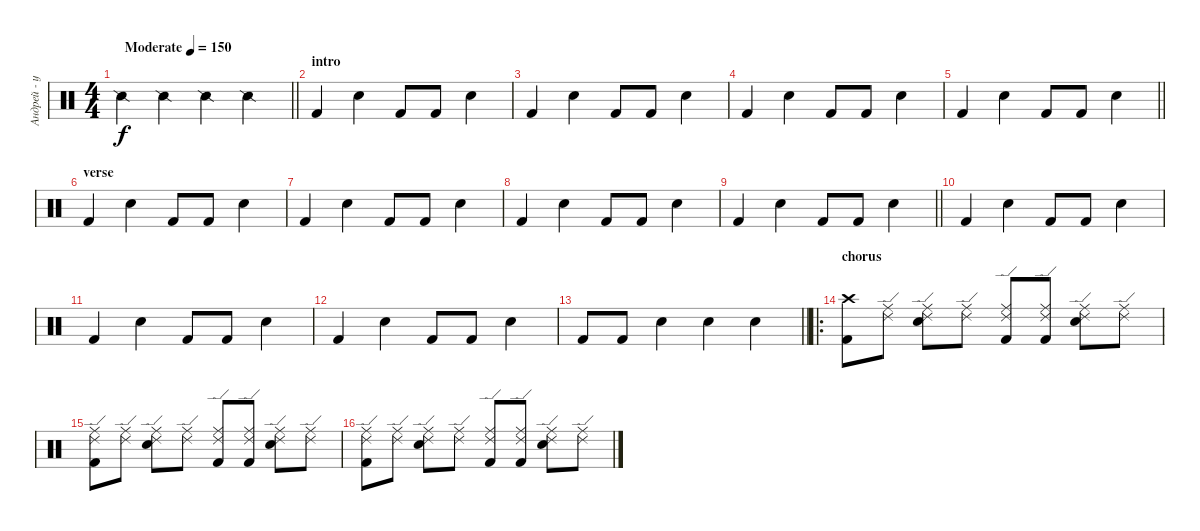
\track ("Андрей - ударные" "Андрей - у") {instrument percussion}
\staff
\articulation defaults
\ts (4 4)
\tempo (150 "Moderate")
\clef neutral
\barLineRight lightlight
\ks c "Snare (side stick) 2".4{dy f} "Snare (side stick) 2".4 "Snare (side stick) 2".4 "Snare (side stick) 2".4
|
\section ("" "intro")
"Kick (hit) 2".4 "Electric Snare (hit)".4 "Kick (hit) 2".8 "Kick (hit) 2".8 "Electric Snare (hit)".4 |
"Kick (hit) 2".4 "Electric Snare (hit)".4 "Kick (hit) 2".8 "Kick (hit) 2".8 "Electric Snare (hit)".4 |
"Kick (hit) 2".4 "Electric Snare (hit)".4 "Kick (hit) 2".8 "Kick (hit) 2".8 "Electric Snare (hit)".4 |
\barLineRight lightlight "Kick (hit) 2".4 "Electric Snare (hit)".4 "Kick (hit) 2".8 "Kick (hit) 2".8 "Electric Snare (hit)".4
|
\section ("" "verse")
"Kick (hit) 2".4 "Electric Snare (hit)".4 "Kick (hit) 2".8 "Kick (hit) 2".8 "Electric Snare (hit)".4 |
"Kick (hit) 2".4 "Electric Snare (hit)".4 "Kick (hit) 2".8 "Kick (hit) 2".8 "Electric Snare (hit)".4 |
"Kick (hit) 2".4 "Electric Snare (hit)".4 "Kick (hit) 2".8 "Kick (hit) 2".8 "Electric Snare (hit)".4 |
\barLineRight lightlight "Kick (hit) 2".4 "Electric Snare (hit)".4 "Kick (hit) 2".8 "Kick (hit) 2".8 "Electric Snare (hit)".4
|
"Kick (hit) 2".4 "Electric Snare (hit)".4 "Kick (hit) 2".8 "Kick (hit) 2".8 "Electric Snare (hit)".4 |
"Kick (hit) 2".4 "Electric Snare (hit)".4 "Kick (hit) 2".8 "Kick (hit) 2".8 "Electric Snare (hit)".4 |
"Kick (hit) 2".4 "Electric Snare (hit)".4 "Kick (hit) 2".8 "Kick (hit) 2".8 "Electric Snare (hit)".4 |
\barLineRight lightlight "Kick (hit) 2".8 "Kick (hit) 2".8 "Electric Snare (hit)".4 "Electric Snare (hit)".4 "Electric Snare (hit)".4
|
\ro
\section ("" "chorus")
("Crash high (hit)" "Kick (hit) 2").8 ("Ride (middle)" "Ride (edge) 2").8 ("Ride (middle)" "Ride (edge) 2" "Electric Snare (hit)").8 ("Ride (middle)" "Ride (edge) 2").8 ("Ride (middle)" "Ride (edge) 2" "Kick (hit) 2").8 ("Ride (middle)" "Ride (edge) 2" "Kick (hit) 2").8 ("Ride (middle)" "Ride (edge) 2" "Electric Snare (hit)").8 ("Ride (middle)" "Ride (edge) 2").8 |
("Ride (middle)" "Ride (edge) 2" "Kick (hit) 2").8 ("Ride (middle)" "Ride (edge) 2").8 ("Ride (middle)" "Ride (edge) 2" "Electric Snare (hit)").8 ("Ride (middle)" "Ride (edge) 2").8 ("Ride (middle)" "Ride (edge) 2" "Kick (hit) 2").8 ("Ride (middle)" "Ride (edge) 2" "Kick (hit) 2").8 ("Ride (middle)" "Ride (edge) 2" "Electric Snare (hit)").8 ("Ride (middle)" "Ride (edge) 2").8 |
("Ride (middle)" "Ride (edge) 2" "Kick (hit) 2").8 ("Ride (middle)" "Ride (edge) 2").8 ("Ride (middle)" "Ride (edge) 2" "Electric Snare (hit)").8 ("Ride (middle)" "Ride (edge) 2").8 ("Ride (middle)" "Ride (edge) 2" "Kick (hit) 2").8 ("Ride (middle)" "Ride (edge) 2" "Kick (hit) 2").8 ("Ride (middle)" "Ride (edge) 2" "Electric Snare (hit)").8 ("Ride (middle)" "Ride (edge) 2").8
